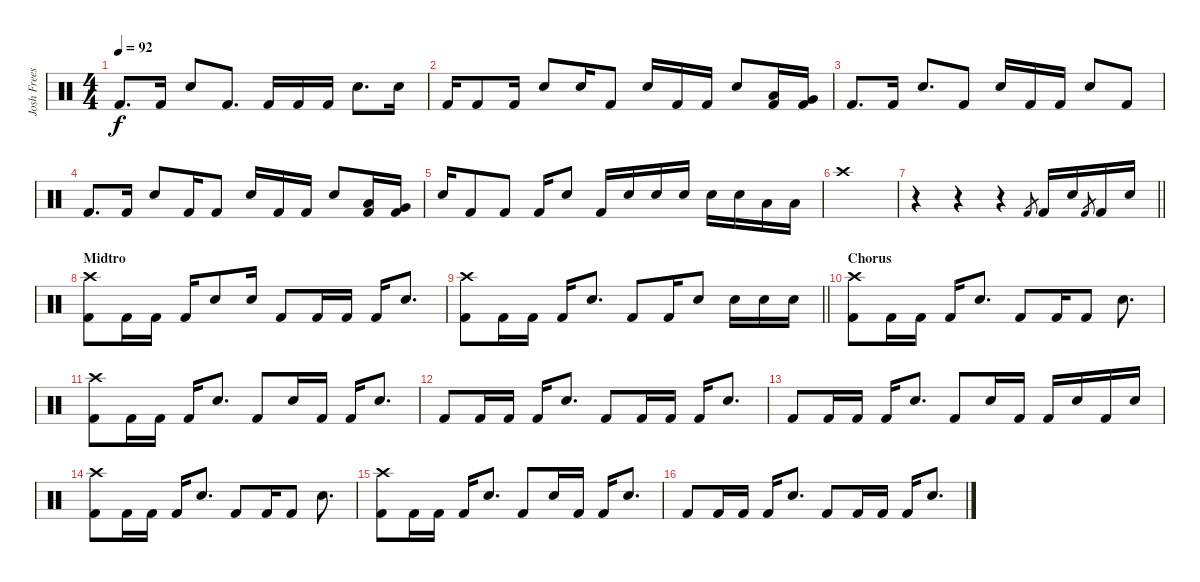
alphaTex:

\track ("Josh Freese (Studio Drummer)" "Josh Frees") {instrument percussion}
\staff {score}
\articulation defaults
\ts (4 4)
\tempo 92
\clef neutral
\ks c "Kick (hit) 2".8{d dy f} "Kick (hit) 2".16 "Electric Snare (hit)".8 "Kick (hit) 2".8{d} "Kick (hit) 2".16 "Kick (hit) 2".16 "Kick (hit) 2".16 "Electric Snare (hit)".8{d} "Electric Snare (hit)".16
|
"Kick (hit) 2".16 "Kick (hit) 2".8 "Kick (hit) 2".16 "Electric Snare (hit)".8 "Electric Snare (hit)".16 "Kick (hit) 2".8 "Electric Snare (hit)".16 "Kick (hit) 2".16 "Kick (hit) 2".16 "Electric Snare (hit)".8 ("Low Tom (hit)" "Kick (hit) 2").16 ("Very Low Tom (hit)" "Kick (hit) 2").16 |
"Kick (hit) 2".8{d} "Kick (hit) 2".16 "Electric Snare (hit)".8{d} "Kick (hit) 2".8 "Electric Snare (hit)".16 "Kick (hit) 2".16 "Kick (hit) 2".16 "Electric Snare (hit)".8 "Kick (hit) 2".8 |
"Kick (hit) 2".8{d} "Kick (hit) 2".16 "Electric Snare (hit)".8 "Kick (hit) 2".16 "Kick (hit) 2".8 "Electric Snare (hit)".16 "Kick (hit) 2".16 "Kick (hit) 2".16 "Electric Snare (hit)".8 ("Low Tom (hit)" "Kick (hit) 2").16 ("Very Low Tom (hit)" "Kick (hit) 2").16 |
"Electric Snare (hit)".16 "Kick (hit) 2".8 "Kick (hit) 2".8 "Kick (hit) 2".16 "Electric Snare (hit)".8 "Kick (hit) 2".16 "Electric Snare (hit)".16 "Electric Snare (hit)".16 "Electric Snare (hit)".16 "Electric Snare (hit)".16 "Electric Snare (hit)".16 "Low Tom (hit)".16 "Low Tom (hit)".16 |
"Crash high (hit)".1 |
\barLineRight lightlight
r.4 r.4 r.4 "Kick (hit) 2".8{gr} "Kick (hit) 2".16 "Electric Snare (hit)".16 "Kick (hit) 2".8{gr} "Kick (hit) 2".16 "Electric Snare (hit)".16 |
\section ("" "Midtro")
("Crash high (hit)" "Kick (hit) 2").8 "Kick (hit) 2".16 "Kick (hit) 2".16 "Kick (hit) 2".16 "Electric Snare (hit)".8 "Electric Snare (hit)".16 "Kick (hit) 2".8 "Kick (hit) 2".16 "Kick (hit) 2".16 "Kick (hit) 2".16 "Electric Snare (hit)".8{d} |
\barLineRight lightlight
("Crash high (hit)" "Kick (hit) 2").8 "Kick (hit) 2".16 "Kick (hit) 2".16 "Kick (hit) 2".16 "Electric Snare (hit)".8{d} "Kick (hit) 2".8 "Kick (hit) 2".16 "Electric Snare (hit)".8 "Electric Snare (hit)".16 "Electric Snare (hit)".16 "Electric Snare (hit)".16 |
\section ("" "Chorus")
("Crash high (hit)" "Kick (hit) 2").8 "Kick (hit) 2".16 "Kick (hit) 2".16 "Kick (hit) 2".16 "Electric Snare (hit)".8{d} "Kick (hit) 2".8 "Kick (hit) 2".16 "Kick (hit) 2".8 "Electric Snare (hit)".8{d} |
("Crash high (hit)" "Kick (hit) 2").8 "Kick (hit) 2".16 "Kick (hit) 2".16 "Kick (hit) 2".16 "Electric Snare (hit)".8{d} "Kick (hit) 2".8 "Electric Snare (hit)".16 "Kick (hit) 2".16 "Kick (hit) 2".16 "Electric Snare (hit)".8{d} |
"Kick (hit) 2".8 "Kick (hit) 2".16 "Kick (hit) 2".16 "Kick (hit) 2".16 "Electric Snare (hit)".8{d} "Kick (hit) 2".8 "Kick (hit) 2".16 "Kick (hit) 2".16 "Kick (hit) 2".16 "Electric Snare (hit)".8{d} |
"Kick (hit) 2".8 "Kick (hit) 2".16 "Kick (hit) 2".16 "Kick (hit) 2".16 "Electric Snare (hit)".8{d} "Kick (hit) 2".8 "Electric Snare (hit)".16 "Kick (hit) 2".16 "Kick (hit) 2".16 "Electric Snare (hit)".16 "Kick (hit) 2".16 "Electric Snare (hit)".16 |
("Crash high (hit)" "Kick (hit) 2").8 "Kick (hit) 2".16 "Kick (hit) 2".16 "Kick (hit) 2".16 "Electric Snare (hit)".8{d} "Kick (hit) 2".8 "Kick (hit) 2".16 "Kick (hit) 2".8 "Electric Snare (hit)".8{d} |
("Crash high (hit)" "Kick (hit) 2").8 "Kick (hit) 2".16 "Kick (hit) 2".16 "Kick (hit) 2".16 "Electric Snare (hit)".8{d} "Kick (hit) 2".8 "Electric Snare (hit)".16 "Kick (hit) 2".16 "Kick (hit) 2".16 "Electric Snare (hit)".8{d} |
"Kick (hit) 2".8 "Kick (hit) 2".16 "Kick (hit) 2".16 "Kick (hit) 2".16 "Electric Snare (hit)".8{d} "Kick (hit) 2".8 "Kick (hit) 2".16 "Kick (hit) 2".16 "Kick (hit) 2".16 "Electric Snare (hit)".8{d}
